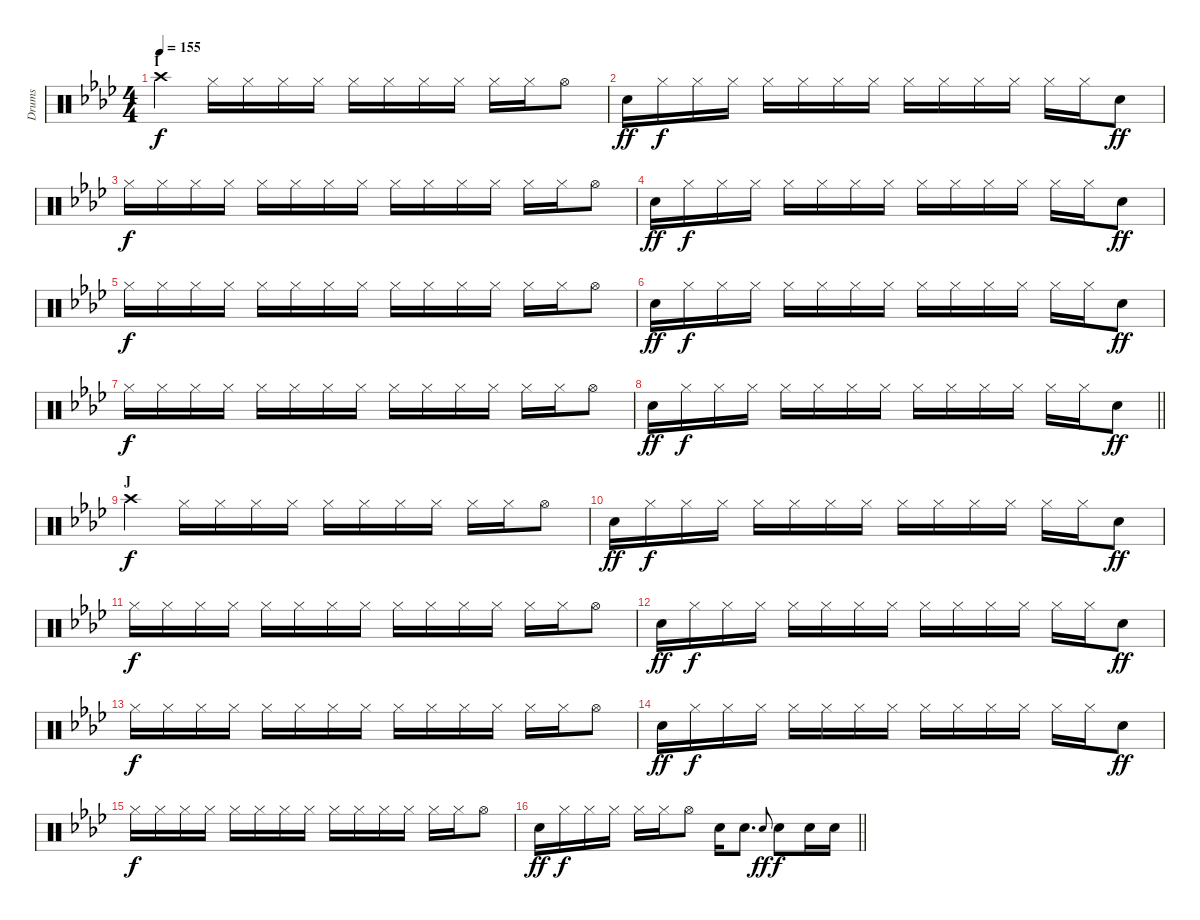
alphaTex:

\track ("Drums" "Drums") {instrument percussion}
\staff {score}
\articulation defaults
\ts (4 4)
\section ("" "I")
\tempo 155
\clef neutral
\ks ab "Crash high (hit)".4{dy f} "Hi-Hat (closed)".16 "Hi-Hat (closed)".16 "Hi-Hat (closed)".16 "Hi-Hat (closed)".16 "Hi-Hat (closed)".16 "Hi-Hat (closed)".16 "Hi-Hat (closed)".16 "Hi-Hat (closed)".16 "Hi-Hat (closed)".16 "Hi-Hat (closed)".16 "Hi-Hat (open)".8
|
"Snare (hit) 2".16{dy ff} "Hi-Hat (closed)".16{dy f} "Hi-Hat (closed)".16 "Hi-Hat (closed)".16 "Hi-Hat (closed)".16 "Hi-Hat (closed)".16 "Hi-Hat (closed)".16 "Hi-Hat (closed)".16 "Hi-Hat (closed)".16 "Hi-Hat (closed)".16 "Hi-Hat (closed)".16 "Hi-Hat (closed)".16 "Hi-Hat (closed)".16 "Hi-Hat (closed)".16 "Snare (hit) 2".8{dy ff} |
"Hi-Hat (closed)".16{dy f} "Hi-Hat (closed)".16 "Hi-Hat (closed)".16 "Hi-Hat (closed)".16 "Hi-Hat (closed)".16 "Hi-Hat (closed)".16 "Hi-Hat (closed)".16 "Hi-Hat (closed)".16 "Hi-Hat (closed)".16 "Hi-Hat (closed)".16 "Hi-Hat (closed)".16 "Hi-Hat (closed)".16 "Hi-Hat (closed)".16 "Hi-Hat (closed)".16 "Hi-Hat (open)".8 |
"Snare (hit) 2".16{dy ff} "Hi-Hat (closed)".16{dy f} "Hi-Hat (closed)".16 "Hi-Hat (closed)".16 "Hi-Hat (closed)".16 "Hi-Hat (closed)".16 "Hi-Hat (closed)".16 "Hi-Hat (closed)".16 "Hi-Hat (closed)".16 "Hi-Hat (closed)".16 "Hi-Hat (closed)".16 "Hi-Hat (closed)".16 "Hi-Hat (closed)".16 "Hi-Hat (closed)".16 "Snare (hit) 2".8{dy ff} |
"Hi-Hat (closed)".16{dy f} "Hi-Hat (closed)".16 "Hi-Hat (closed)".16 "Hi-Hat (closed)".16 "Hi-Hat (closed)".16 "Hi-Hat (closed)".16 "Hi-Hat (closed)".16 "Hi-Hat (closed)".16 "Hi-Hat (closed)".16 "Hi-Hat (closed)".16 "Hi-Hat (closed)".16 "Hi-Hat (closed)".16 "Hi-Hat (closed)".16 "Hi-Hat (closed)".16 "Hi-Hat (open)".8 |
"Snare (hit) 2".16{dy ff} "Hi-Hat (closed)".16{dy f} "Hi-Hat (closed)".16 "Hi-Hat (closed)".16 "Hi-Hat (closed)".16 "Hi-Hat (closed)".16 "Hi-Hat (closed)".16 "Hi-Hat (closed)".16 "Hi-Hat (closed)".16 "Hi-Hat (closed)".16 "Hi-Hat (closed)".16 "Hi-Hat (closed)".16 "Hi-Hat (closed)".16 "Hi-Hat (closed)".16 "Snare (hit) 2".8{dy ff} |
"Hi-Hat (closed)".16{dy f} "Hi-Hat (closed)".16 "Hi-Hat (closed)".16 "Hi-Hat (closed)".16 "Hi-Hat (closed)".16 "Hi-Hat (closed)".16 "Hi-Hat (closed)".16 "Hi-Hat (closed)".16 "Hi-Hat (closed)".16 "Hi-Hat (closed)".16 "Hi-Hat (closed)".16 "Hi-Hat (closed)".16 "Hi-Hat (closed)".16 "Hi-Hat (closed)".16 "Hi-Hat (open)".8 |
\barLineRight lightlight "Snare (hit) 2".16{dy ff} "Hi-Hat (closed)".16{dy f} "Hi-Hat (closed)".16 "Hi-Hat (closed)".16 "Hi-Hat (closed)".16 "Hi-Hat (closed)".16 "Hi-Hat (closed)".16 "Hi-Hat (closed)".16 "Hi-Hat (closed)".16 "Hi-Hat (closed)".16 "Hi-Hat (closed)".16 "Hi-Hat (closed)".16 "Hi-Hat (closed)".16 "Hi-Hat (closed)".16 "Snare (hit) 2".8{dy ff}
|
\section ("" "J")
"Crash high (hit)".4{dy f} "Hi-Hat (closed)".16 "Hi-Hat (closed)".16 "Hi-Hat (closed)".16 "Hi-Hat (closed)".16 "Hi-Hat (closed)".16 "Hi-Hat (closed)".16 "Hi-Hat (closed)".16 "Hi-Hat (closed)".16 "Hi-Hat (closed)".16 "Hi-Hat (closed)".16 "Hi-Hat (open)".8 |
"Snare (hit) 2".16{dy ff} "Hi-Hat (closed)".16{dy f} "Hi-Hat (closed)".16 "Hi-Hat (closed)".16 "Hi-Hat (closed)".16 "Hi-Hat (closed)".16 "Hi-Hat (closed)".16 "Hi-Hat (closed)".16 "Hi-Hat (closed)".16 "Hi-Hat (closed)".16 "Hi-Hat (closed)".16 "Hi-Hat (closed)".16 "Hi-Hat (closed)".16 "Hi-Hat (closed)".16 "Snare (hit) 2".8{dy ff} |
"Hi-Hat (closed)".16{dy f} "Hi-Hat (closed)".16 "Hi-Hat (closed)".16 "Hi-Hat (closed)".16 "Hi-Hat (closed)".16 "Hi-Hat (closed)".16 "Hi-Hat (closed)".16 "Hi-Hat (closed)".16 "Hi-Hat (closed)".16 "Hi-Hat (closed)".16 "Hi-Hat (closed)".16 "Hi-Hat (closed)".16 "Hi-Hat (closed)".16 "Hi-Hat (closed)".16 "Hi-Hat (open)".8 |
"Snare (hit) 2".16{dy ff} "Hi-Hat (closed)".16{dy f} "Hi-Hat (closed)".16 "Hi-Hat (closed)".16 "Hi-Hat (closed)".16 "Hi-Hat (closed)".16 "Hi-Hat (closed)".16 "Hi-Hat (closed)".16 "Hi-Hat (closed)".16 "Hi-Hat (closed)".16 "Hi-Hat (closed)".16 "Hi-Hat (closed)".16 "Hi-Hat (closed)".16 "Hi-Hat (closed)".16 "Snare (hit) 2".8{dy ff} |
"Hi-Hat (closed)".16{dy f} "Hi-Hat (closed)".16 "Hi-Hat (closed)".16 "Hi-Hat (closed)".16 "Hi-Hat (closed)".16 "Hi-Hat (closed)".16 "Hi-Hat (closed)".16 "Hi-Hat (closed)".16 "Hi-Hat (closed)".16 "Hi-Hat (closed)".16 "Hi-Hat (closed)".16 "Hi-Hat (closed)".16 "Hi-Hat (closed)".16 "Hi-Hat (closed)".16 "Hi-Hat (open)".8 |
"Snare (hit) 2".16{dy ff} "Hi-Hat (closed)".16{dy f} "Hi-Hat (closed)".16 "Hi-Hat (closed)".16 "Hi-Hat (closed)".16 "Hi-Hat (closed)".16 "Hi-Hat (closed)".16 "Hi-Hat (closed)".16 "Hi-Hat (closed)".16 "Hi-Hat (closed)".16 "Hi-Hat (closed)".16 "Hi-Hat (closed)".16 "Hi-Hat (closed)".16 "Hi-Hat (closed)".16 "Snare (hit) 2".8{dy ff} |
"Hi-Hat (closed)".16{dy f} "Hi-Hat (closed)".16 "Hi-Hat (closed)".16 "Hi-Hat (closed)".16 "Hi-Hat (closed)".16 "Hi-Hat (closed)".16 "Hi-Hat (closed)".16 "Hi-Hat (closed)".16 "Hi-Hat (closed)".16 "Hi-Hat (closed)".16 "Hi-Hat (closed)".16 "Hi-Hat (closed)".16 "Hi-Hat (closed)".16 "Hi-Hat (closed)".16 "Hi-Hat (open)".8 |
\barLineRight lightlight "Snare (hit) 2".16{dy ff} "Hi-Hat (closed)".16{dy f} "Hi-Hat (closed)".16 "Hi-Hat (closed)".16 "Hi-Hat (closed)".16 "Hi-Hat (closed)".16 "Hi-Hat (open)".8 "Snare (hit) 2".16 "Snare (hit) 2".8{d} "Snare (hit) 2".8{gr onbeat dy ff} "Snare (hit) 2".8{dy f} "Snare (hit) 2".16 "Snare (hit) 2".16
